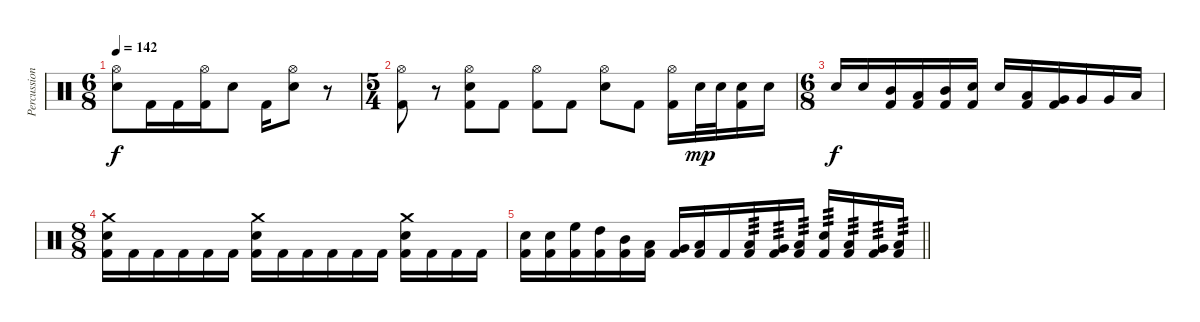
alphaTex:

\track ("Percussions" "Percussion") {instrument percussion}
\staff {score}
\articulation defaults
\ts (6 8)
\tempo 142
\clef neutral
\ks c
("Hi-Hat (open)" "Electric Snare (hit)").8{dy f} "Kick (hit) 2".16 "Kick (hit) 2".16 ("Hi-Hat (open)" "Kick (hit) 2").16 "Electric Snare (hit)".8 "Kick (hit) 2".16 ("Hi-Hat (open)" "Electric Snare (hit)").8 r.8 |
\ts (5 4)
("Hi-Hat (open)" "Kick (hit) 2").8 r.8 ("Hi-Hat (open)" "Electric Snare (hit)" "Kick (hit) 2").8 "Kick (hit) 2".8 ("Hi-Hat (open)" "Kick (hit) 2").8 "Kick (hit) 2".8 ("Hi-Hat (open)" "Electric Snare (hit)").8 "Kick (hit) 2".8 ("Hi-Hat (open)" "Kick (hit) 2").16 "Electric Snare (hit)".32{dy mp} "Electric Snare (hit)".32 ("Electric Snare (hit)" "Kick (hit) 2").16 "Electric Snare (hit)".16 |
\ts (6 8)
"Electric Snare (hit)".16{dy f} "Electric Snare (hit)".16 ("Mid Tom (hit)" "Kick (hit) 2").16 ("Low Tom (hit)" "Kick (hit) 2").16 ("Mid Tom (hit)" "Kick (hit) 2").16 ("Electric Snare (hit)" "Kick (hit) 2").16 "Electric Snare (hit)".16 ("Low Tom (hit)" "Kick (hit) 2").16 ("Very Low Tom (hit)" "Kick (hit) 2").16 "Very Low Tom (hit)".16 "Very Low Tom (hit)".16 "Low Floor Tom (hit)".16 |
\ts (8 8)
("Crash medium (hit)" "Electric Snare (hit)" "Kick (hit) 2").16 "Kick (hit) 2".16 "Kick (hit) 2".16 "Kick (hit) 2".16 "Kick (hit) 2".16 "Kick (hit) 2".16 ("Crash medium (hit)" "Electric Snare (hit)" "Kick (hit) 2").16 "Kick (hit) 2".16 "Kick (hit) 2".16 "Kick (hit) 2".16 "Kick (hit) 2".16 "Kick (hit) 2".16 ("Crash medium (hit)" "Electric Snare (hit)" "Kick (hit) 2").16 "Kick (hit) 2".16 "Kick (hit) 2".16 "Kick (hit) 2".16 |
\barLineRight lightlight
("Electric Snare (hit)" "Kick (hit) 2").16 ("Electric Snare (hit)" "Kick (hit) 2").16 ("High Floor Tom (hit)" "Kick (hit) 2").16 ("High Tom (hit)" "Kick (hit) 2").16 ("Mid Tom (hit)" "Kick (hit) 2").16 ("Low Tom (hit)" "Kick (hit) 2").16 ("Very Low Tom (hit)" "Kick (hit) 2").16 ("Low Floor Tom (hit)" "Kick (hit) 2").16 "Kick (hit) 2".16 ("Low Tom (hit)" "Kick (hit) 2").16{tp 3} ("Very Low Tom (hit)" "Kick (hit) 2").16{tp 3} ("Low Floor Tom (hit)" "Kick (hit) 2").16{tp 3} ("Electric Snare (hit)" "Kick (hit) 2").16{tp 3} ("Low Tom (hit)" "Kick (hit) 2").16{tp 3} ("Very Low Tom (hit)" "Kick (hit) 2").16{tp 3} ("Low Floor Tom (hit)" "Kick (hit) 2").16{tp 3}
